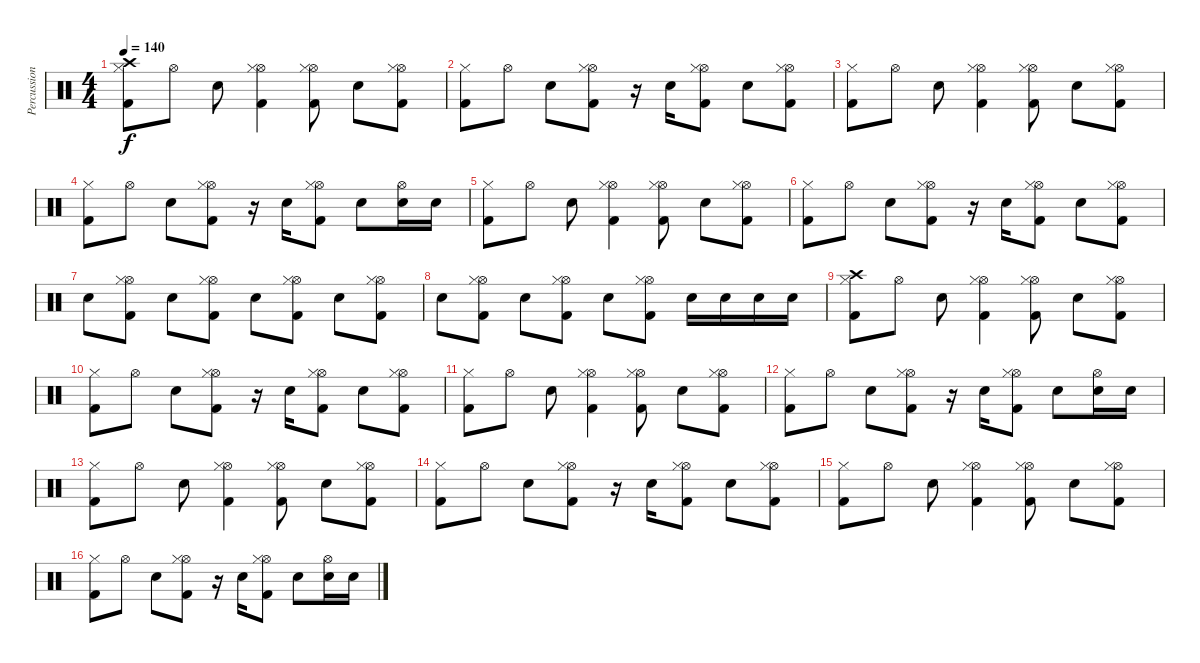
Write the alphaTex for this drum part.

\track ("Percussion" "Percussion") {instrument percussion}
\staff {score}
\articulation defaults
\ts (4 4)
\tempo 140
\clef neutral
\ks c
("Kick (hit) 2" "Crash high (hit)" "Hi-Hat (closed)").8{dy f} "Hi-Hat (open)".8 "Snare (hit) 2".8 ("Kick (hit) 2" "Hi-Hat (open)" "Hi-Hat (closed)").4 ("Kick (hit) 2" "Hi-Hat (open)" "Hi-Hat (closed)").8 "Snare (hit) 2".8 ("Kick (hit) 2" "Hi-Hat (open)" "Hi-Hat (closed)").8 |
("Kick (hit) 2" "Hi-Hat (closed)").8 "Hi-Hat (open)".8 "Snare (hit) 2".8 ("Kick (hit) 2" "Hi-Hat (open)" "Hi-Hat (closed)").8 r.16 "Snare (hit) 2".16 ("Kick (hit) 2" "Hi-Hat (open)" "Hi-Hat (closed)").8 "Snare (hit) 2".8 ("Kick (hit) 2" "Hi-Hat (open)" "Hi-Hat (closed)").8 |
("Kick (hit) 2" "Hi-Hat (closed)").8 "Hi-Hat (open)".8 "Snare (hit) 2".8 ("Kick (hit) 2" "Hi-Hat (open)" "Hi-Hat (closed)").4 ("Kick (hit) 2" "Hi-Hat (open)" "Hi-Hat (closed)").8 "Snare (hit) 2".8 ("Kick (hit) 2" "Hi-Hat (open)" "Hi-Hat (closed)").8 |
("Kick (hit) 2" "Hi-Hat (closed)").8 "Hi-Hat (open)".8 "Snare (hit) 2".8 ("Kick (hit) 2" "Hi-Hat (open)" "Hi-Hat (closed)").8 r.16 "Snare (hit) 2".16 ("Kick (hit) 2" "Hi-Hat (open)" "Hi-Hat (closed)").8 "Snare (hit) 2".8 ("Snare (hit) 2" "Hi-Hat (open)").16 "Snare (hit) 2".16 |
("Kick (hit) 2" "Hi-Hat (closed)").8 "Hi-Hat (open)".8 "Snare (hit) 2".8 ("Kick (hit) 2" "Hi-Hat (open)" "Hi-Hat (closed)").4 ("Kick (hit) 2" "Hi-Hat (open)" "Hi-Hat (closed)").8 "Snare (hit) 2".8 ("Kick (hit) 2" "Hi-Hat (open)" "Hi-Hat (closed)").8 |
("Kick (hit) 2" "Hi-Hat (closed)").8 "Hi-Hat (open)".8 "Snare (hit) 2".8 ("Kick (hit) 2" "Hi-Hat (open)" "Hi-Hat (closed)").8 r.16 "Snare (hit) 2".16 ("Kick (hit) 2" "Hi-Hat (open)" "Hi-Hat (closed)").8 "Snare (hit) 2".8 ("Kick (hit) 2" "Hi-Hat (open)" "Hi-Hat (closed)").8 |
"Snare (hit) 2".8 ("Kick (hit) 2" "Hi-Hat (open)" "Hi-Hat (closed)").8 "Snare (hit) 2".8 ("Kick (hit) 2" "Hi-Hat (open)" "Hi-Hat (closed)").8 "Snare (hit) 2".8 ("Kick (hit) 2" "Hi-Hat (open)" "Hi-Hat (closed)").8 "Snare (hit) 2".8 ("Kick (hit) 2" "Hi-Hat (open)" "Hi-Hat (closed)").8 |
"Snare (hit) 2".8 ("Kick (hit) 2" "Hi-Hat (open)" "Hi-Hat (closed)").8 "Snare (hit) 2".8 ("Kick (hit) 2" "Hi-Hat (open)" "Hi-Hat (closed)").8 "Snare (hit) 2".8 ("Kick (hit) 2" "Hi-Hat (open)" "Hi-Hat (closed)").8 "Snare (hit) 2".16 "Snare (hit) 2".16 "Snare (hit) 2".16 "Snare (hit) 2".16 |
("Kick (hit) 2" "Crash high (hit)" "Hi-Hat (closed)").8 "Hi-Hat (open)".8 "Snare (hit) 2".8 ("Kick (hit) 2" "Hi-Hat (open)" "Hi-Hat (closed)").4 ("Kick (hit) 2" "Hi-Hat (open)" "Hi-Hat (closed)").8 "Snare (hit) 2".8 ("Kick (hit) 2" "Hi-Hat (open)" "Hi-Hat (closed)").8 |
("Kick (hit) 2" "Hi-Hat (closed)").8 "Hi-Hat (open)".8 "Snare (hit) 2".8 ("Kick (hit) 2" "Hi-Hat (open)" "Hi-Hat (closed)").8 r.16 "Snare (hit) 2".16 ("Kick (hit) 2" "Hi-Hat (open)" "Hi-Hat (closed)").8 "Snare (hit) 2".8 ("Kick (hit) 2" "Hi-Hat (open)" "Hi-Hat (closed)").8 |
("Kick (hit) 2" "Hi-Hat (closed)").8 "Hi-Hat (open)".8 "Snare (hit) 2".8 ("Kick (hit) 2" "Hi-Hat (open)" "Hi-Hat (closed)").4 ("Kick (hit) 2" "Hi-Hat (open)" "Hi-Hat (closed)").8 "Snare (hit) 2".8 ("Kick (hit) 2" "Hi-Hat (open)" "Hi-Hat (closed)").8 |
("Kick (hit) 2" "Hi-Hat (closed)").8 "Hi-Hat (open)".8 "Snare (hit) 2".8 ("Kick (hit) 2" "Hi-Hat (open)" "Hi-Hat (closed)").8 r.16 "Snare (hit) 2".16 ("Kick (hit) 2" "Hi-Hat (open)" "Hi-Hat (closed)").8 "Snare (hit) 2".8 ("Snare (hit) 2" "Hi-Hat (open)").16 "Snare (hit) 2".16 |
("Kick (hit) 2" "Hi-Hat (closed)").8 "Hi-Hat (open)".8 "Snare (hit) 2".8 ("Kick (hit) 2" "Hi-Hat (open)" "Hi-Hat (closed)").4 ("Kick (hit) 2" "Hi-Hat (open)" "Hi-Hat (closed)").8 "Snare (hit) 2".8 ("Kick (hit) 2" "Hi-Hat (open)" "Hi-Hat (closed)").8 |
("Kick (hit) 2" "Hi-Hat (closed)").8 "Hi-Hat (open)".8 "Snare (hit) 2".8 ("Kick (hit) 2" "Hi-Hat (open)" "Hi-Hat (closed)").8 r.16 "Snare (hit) 2".16 ("Kick (hit) 2" "Hi-Hat (open)" "Hi-Hat (closed)").8 "Snare (hit) 2".8 ("Kick (hit) 2" "Hi-Hat (open)" "Hi-Hat (closed)").8 |
("Kick (hit) 2" "Hi-Hat (closed)").8 "Hi-Hat (open)".8 "Snare (hit) 2".8 ("Kick (hit) 2" "Hi-Hat (open)" "Hi-Hat (closed)").4 ("Kick (hit) 2" "Hi-Hat (open)" "Hi-Hat (closed)").8 "Snare (hit) 2".8 ("Kick (hit) 2" "Hi-Hat (open)" "Hi-Hat (closed)").8 |
("Kick (hit) 2" "Hi-Hat (closed)").8 "Hi-Hat (open)".8 "Snare (hit) 2".8 ("Kick (hit) 2" "Hi-Hat (open)" "Hi-Hat (closed)").8 r.16 "Snare (hit) 2".16 ("Kick (hit) 2" "Hi-Hat (open)" "Hi-Hat (closed)").8 "Snare (hit) 2".8 ("Snare (hit) 2" "Hi-Hat (open)").16 "Snare (hit) 2".16
